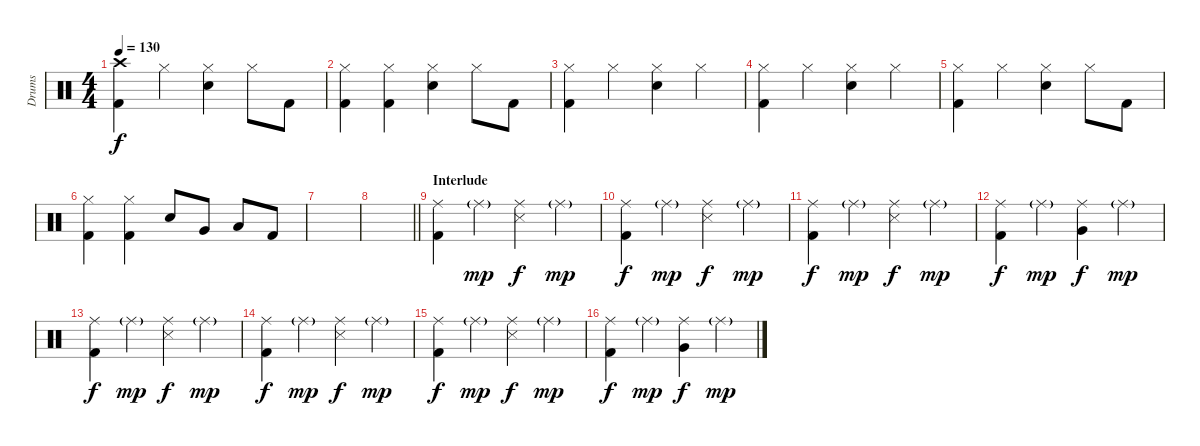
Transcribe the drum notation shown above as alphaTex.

\track ("Drums" "Drums") {instrument percussion}
\staff {score}
\articulation defaults
\ts (4 4)
\tempo 130
\clef neutral
\ks c
("Crash high (hit)" "Kick (hit) 2").4{dy f} "Hi-Hat (closed)".4 ("Hi-Hat (closed)" "Electric Snare (hit)").4 "Hi-Hat (closed)".8 "Kick (hit) 2".8 |
("Hi-Hat (closed)" "Kick (hit) 2").4 ("Hi-Hat (closed)" "Kick (hit) 2").4 ("Hi-Hat (closed)" "Electric Snare (hit)").4 "Hi-Hat (closed)".8 "Kick (hit) 2".8 |
("Hi-Hat (closed)" "Kick (hit) 2").4 "Hi-Hat (closed)".4 ("Hi-Hat (closed)" "Electric Snare (hit)").4 "Hi-Hat (closed)".4 |
("Hi-Hat (closed)" "Kick (hit) 2").4 "Hi-Hat (closed)".4 ("Hi-Hat (closed)" "Electric Snare (hit)").4 "Hi-Hat (closed)".4 |
("Hi-Hat (closed)" "Kick (hit) 2").4 "Hi-Hat (closed)".4 ("Hi-Hat (closed)" "Electric Snare (hit)").4 "Hi-Hat (closed)".8 "Kick (hit) 2".8 |
("Hi-Hat (closed)" "Kick (hit) 2").4 ("Hi-Hat (closed)" "Kick (hit) 2").4 "Electric Snare (hit)".8 "Very Low Tom (hit)".8 "Low Floor Tom (hit)".8 "Kick (hit) 2".8 |
|
\barLineRight lightlight
|
\section ("" "Interlude")
("Ride (middle)" "Kick (hit) 2").4 "Ride (middle)"{g}.4{dy mp} ("Ride (middle)" "Snare (side stick) 3").4{dy f} "Ride (middle)"{g}.4{dy mp} |
("Ride (middle)" "Kick (hit) 2").4{dy f} "Ride (middle)"{g}.4{dy mp} ("Ride (middle)" "Snare (side stick) 3").4{dy f} "Ride (middle)"{g}.4{dy mp} |
("Ride (middle)" "Kick (hit) 2").4{dy f} "Ride (middle)"{g}.4{dy mp} ("Ride (middle)" "Snare (side stick) 3").4{dy f} "Ride (middle)"{g}.4{dy mp} |
("Ride (middle)" "Kick (hit) 2").4{dy f} "Ride (middle)"{g}.4{dy mp} ("Ride (middle)" "Very Low Tom (hit)").4{dy f} "Ride (middle)"{g}.4{dy mp} |
("Ride (middle)" "Kick (hit) 2").4{dy f} "Ride (middle)"{g}.4{dy mp} ("Ride (middle)" "Snare (side stick) 3").4{dy f} "Ride (middle)"{g}.4{dy mp} |
("Ride (middle)" "Kick (hit) 2").4{dy f} "Ride (middle)"{g}.4{dy mp} ("Ride (middle)" "Snare (side stick) 3").4{dy f} "Ride (middle)"{g}.4{dy mp} |
("Ride (middle)" "Kick (hit) 2").4{dy f} "Ride (middle)"{g}.4{dy mp} ("Ride (middle)" "Snare (side stick) 3").4{dy f} "Ride (middle)"{g}.4{dy mp} |
("Ride (middle)" "Kick (hit) 2").4{dy f} "Ride (middle)"{g}.4{dy mp} ("Ride (middle)" "Very Low Tom (hit)").4{dy f} "Ride (middle)"{g}.4{dy mp}
